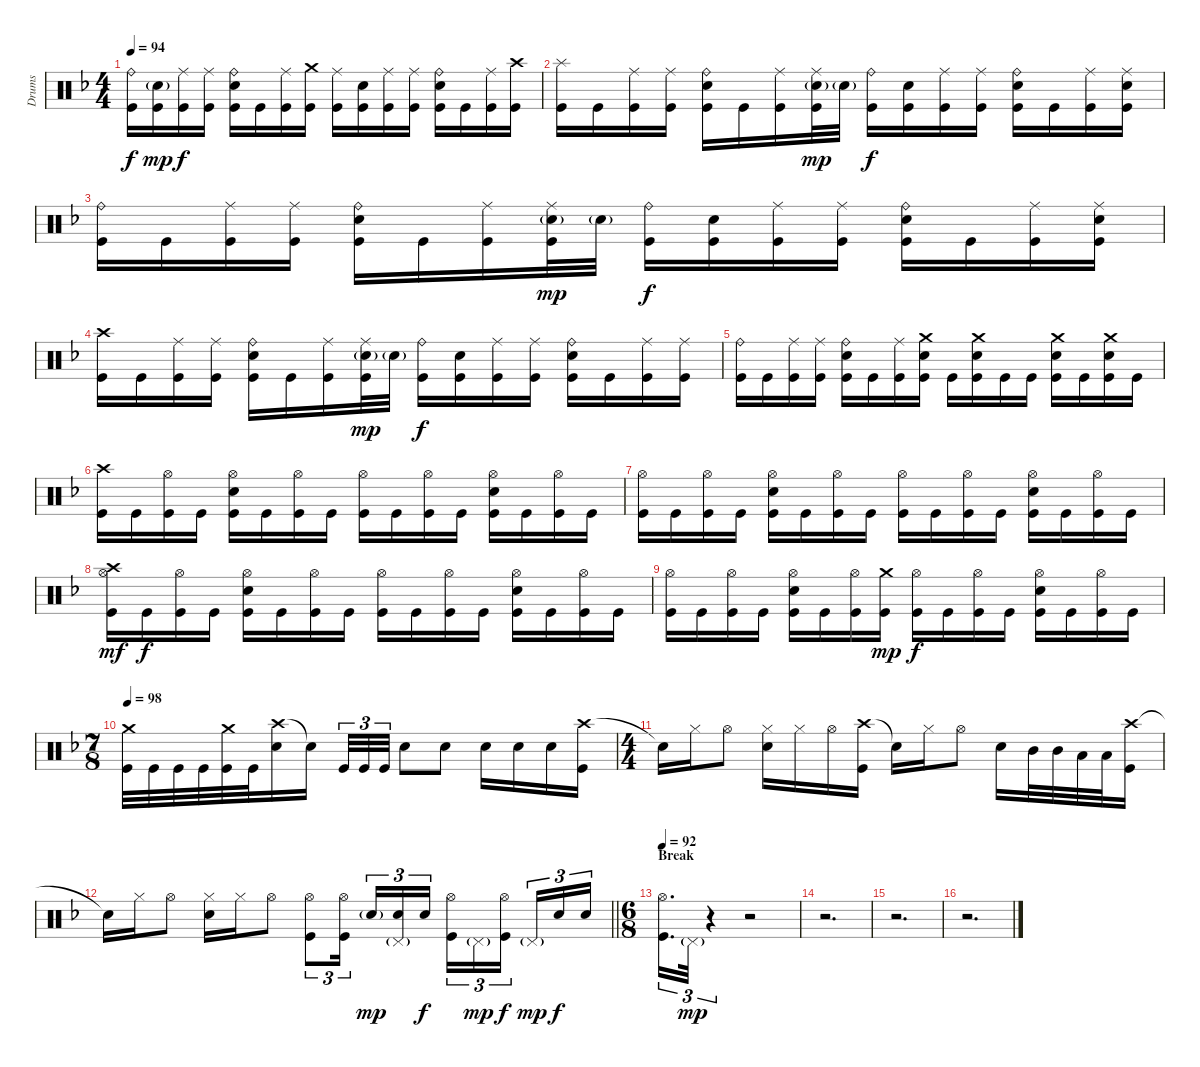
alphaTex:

\track ("Drums" "Drums") {instrument percussion bank 10}
\staff {score}
\articulation defaults
\ts (4 4)
\tempo 94
\clef neutral
\ks dminor
("Ride (bell)" "Kick (hit)").16{dy f} ("Electric Snare (hit)"{g} "Kick (hit)").16{dy mp} ("Ride (middle)" "Kick (hit)").16{dy f} ("Ride (middle)" "Kick (hit)").16 ("Ride (bell)" "Electric Snare (hit)" "Kick (hit)").16 "Kick (hit)".16 ("Ride (middle)" "Kick (hit)").16 ("Crash medium (hit)" "Kick (hit)").16 ("Ride (middle)" "Kick (hit)").16 ("Electric Snare (hit)" "Kick (hit)").16 ("Ride (middle)" "Kick (hit)").16 ("Ride (middle)" "Kick (hit)").16 ("Ride (bell)" "Electric Snare (hit)" "Kick (hit)").16 "Kick (hit)".16 ("Ride (middle)" "Kick (hit)").16 ("Crash high (hit)" "Kick (hit)").16 |
("Splash (hit)" "Kick (hit)").16 "Kick (hit)".16 ("Ride (middle)" "Kick (hit)").16 ("Ride (middle)" "Kick (hit)").16 ("Ride (bell)" "Electric Snare (hit)" "Kick (hit)").16 "Kick (hit)".16 ("Ride (middle)" "Kick (hit)").16 ("Ride (middle)" "Electric Snare (hit)"{g} "Kick (hit)").32{dy mp} "Electric Snare (hit)"{g}.32 ("Ride (bell)" "Kick (hit)").16{dy f} ("Electric Snare (hit)" "Kick (hit)").16 ("Ride (middle)" "Kick (hit)").16 ("Ride (middle)" "Kick (hit)").16 ("Ride (bell)" "Electric Snare (hit)" "Kick (hit)").16 "Kick (hit)".16 ("Ride (middle)" "Kick (hit)").16 ("Ride (middle)" "Electric Snare (hit)" "Kick (hit)").16 |
("Ride (bell)" "Kick (hit)").16 "Kick (hit)".16 ("Ride (middle)" "Kick (hit)").16 ("Ride (middle)" "Kick (hit)").16 ("Ride (bell)" "Electric Snare (hit)" "Kick (hit)").16 "Kick (hit)".16 ("Ride (middle)" "Kick (hit)").16 ("Ride (middle)" "Electric Snare (hit)"{g} "Kick (hit)").32{dy mp} "Electric Snare (hit)"{g}.32 ("Ride (bell)" "Kick (hit)").16{dy f} ("Electric Snare (hit)" "Kick (hit)").16 ("Ride (middle)" "Kick (hit)").16 ("Ride (middle)" "Kick (hit)").16 ("Ride (bell)" "Electric Snare (hit)" "Kick (hit)").16 "Kick (hit)".16 ("Ride (middle)" "Kick (hit)").16 ("Ride (middle)" "Electric Snare (hit)" "Kick (hit)").16 |
("Crash high (hit)" "Kick (hit)").16 "Kick (hit)".16 ("Ride (middle)" "Kick (hit)").16 ("Ride (middle)" "Kick (hit)").16 ("Ride (bell)" "Electric Snare (hit)" "Kick (hit)").16 "Kick (hit)".16 ("Ride (middle)" "Kick (hit)").16 ("Ride (middle)" "Electric Snare (hit)"{g} "Kick (hit)").32{dy mp} "Electric Snare (hit)"{g}.32 ("Ride (bell)" "Kick (hit)").16{dy f} ("Electric Snare (hit)" "Kick (hit)").16 ("Ride (middle)" "Kick (hit)").16 ("Ride (middle)" "Kick (hit)").16 ("Ride (bell)" "Electric Snare (hit)" "Kick (hit)").16 "Kick (hit)".16 ("Ride (middle)" "Kick (hit)").16 ("Ride (middle)" "Kick (hit)").16 |
("Ride (bell)" "Kick (hit)").16 "Kick (hit)".16 ("Ride (middle)" "Kick (hit)").16 ("Ride (middle)" "Kick (hit)").16 ("Ride (bell)" "Electric Snare (hit)" "Kick (hit)").16 "Kick (hit)".16 ("Ride (middle)" "Kick (hit)").16 ("Crash medium (hit)" "Electric Snare (hit)" "Kick (hit)").16 "Kick (hit)".16 ("Crash medium (hit)" "Electric Snare (hit)" "Kick (hit)").16 "Kick (hit)".16 "Kick (hit)".16 ("Crash medium (hit)" "Electric Snare (hit)" "Kick (hit)").16 "Kick (hit)".16 ("Crash medium (hit)" "Electric Snare (hit)" "Kick (hit)").16 "Kick (hit)".16 |
("Crash high (hit)" "Kick (hit)").16 "Kick (hit)".16 ("Hi-Hat (open)" "Kick (hit)").16 "Kick (hit)".16 ("Hi-Hat (open)" "Electric Snare (hit)" "Kick (hit)").16 "Kick (hit)".16 ("Hi-Hat (open)" "Kick (hit)").16 "Kick (hit)".16 ("Hi-Hat (open)" "Kick (hit)").16 "Kick (hit)".16 ("Hi-Hat (open)" "Kick (hit)").16 "Kick (hit)".16 ("Hi-Hat (open)" "Electric Snare (hit)" "Kick (hit)").16 "Kick (hit)".16 ("Hi-Hat (open)" "Kick (hit)").16 "Kick (hit)".16 |
("Hi-Hat (open)" "Kick (hit)").16 "Kick (hit)".16 ("Hi-Hat (open)" "Kick (hit)").16 "Kick (hit)".16 ("Hi-Hat (open)" "Electric Snare (hit)" "Kick (hit)").16 "Kick (hit)".16 ("Hi-Hat (open)" "Kick (hit)").16 "Kick (hit)".16 ("Hi-Hat (open)" "Kick (hit)").16 "Kick (hit)".16 ("Hi-Hat (open)" "Kick (hit)").16 "Kick (hit)".16 ("Hi-Hat (open)" "Electric Snare (hit)" "Kick (hit)").16 "Kick (hit)".16 ("Hi-Hat (open)" "Kick (hit)").16 "Kick (hit)".16 |
("Crash high (hit)" "Hi-Hat (open)" "Kick (hit)").16{dy mf} "Kick (hit)".16{dy f} ("Hi-Hat (open)" "Kick (hit)").16 "Kick (hit)".16 ("Hi-Hat (open)" "Electric Snare (hit)" "Kick (hit)").16 "Kick (hit)".16 ("Hi-Hat (open)" "Kick (hit)").16 "Kick (hit)".16 ("Hi-Hat (open)" "Kick (hit)").16 "Kick (hit)".16 ("Hi-Hat (open)" "Kick (hit)").16 "Kick (hit)".16 ("Hi-Hat (open)" "Electric Snare (hit)" "Kick (hit)").16 "Kick (hit)".16 ("Hi-Hat (open)" "Kick (hit)").16 "Kick (hit)".16 |
("Hi-Hat (open)" "Kick (hit)").16 "Kick (hit)".16 ("Hi-Hat (open)" "Kick (hit)").16 "Kick (hit)".16 ("Hi-Hat (open)" "Electric Snare (hit)" "Kick (hit)").16 "Kick (hit)".16 ("Hi-Hat (open)" "Kick (hit)").16 ("Crash medium (hit)" "Kick (hit)").16{dy mp} ("Hi-Hat (open)" "Kick (hit)").16{dy f} "Kick (hit)".16 ("Hi-Hat (open)" "Kick (hit)").16 "Kick (hit)".16 ("Hi-Hat (open)" "Electric Snare (hit)" "Kick (hit)").16 "Kick (hit)".16 ("Hi-Hat (open)" "Kick (hit)").16 "Kick (hit)".16 |
\ts (7 8)
\tempo 98
("Crash medium (hit)" "Kick (hit)").32 "Kick (hit)".32 "Kick (hit)".32 "Kick (hit)".32{beam merge} ("Crash medium (hit)" "Kick (hit)").32 "Kick (hit)".32 ("Crash high (hit)" "Electric Snare (hit)").16{beam merge} "Snare (hit)"{t}.16{beam splitsecondary} "Kick (hit)".32{tu (3 2)} "Kick (hit)".32{tu (3 2)} "Kick (hit)".32{tu (3 2) beam split} "Electric Snare (hit)".8{beam merge} "Electric Snare (hit)".8{beam split} "Electric Snare (hit)".16 "Electric Snare (hit)".16{beam merge} "Electric Snare (hit)".16 ("Crash high (hit)" "Kick (hit)").16 |
\ts (4 4)
"Snare (hit)"{t}.16 "Hi-Hat (closed)".16 "Hi-Hat (open)".8 ("Hi-Hat (closed)" "Electric Snare (hit)").16 "Hi-Hat (closed)".16 "Hi-Hat (open)".16 ("Crash high (hit)" "Kick (hit)").16 "Snare (hit)"{t}.16 "Hi-Hat (closed)".16 "Hi-Hat (open)".8 "Electric Snare (hit)".16 "Mid Tom (hit)".32 "Mid Tom (hit)".32 "Low Tom (hit)".32 "Low Tom (hit)".32 ("Crash high (hit)" "Kick (hit)").16 |
\barLineRight lightlight "Snare (hit)"{t}.16 "Hi-Hat (closed)".16 "Hi-Hat (open)".8
("Hi-Hat (closed)" "Electric Snare (hit)").16 "Hi-Hat (closed)".16 "Hi-Hat (open)".8 ("Hi-Hat (open)" "Kick (hit)").8{tu (3 2)} ("Hi-Hat (open)" "Kick (hit)").16{tu (3 2) beam splitsecondary} "Electric Snare (hit)"{g}.16{tu (3 2) dy mp} ("Pedal Hi-Hat (hit)"{g} "Electric Snare (hit)").16{tu (3 2)} "Electric Snare (hit)".16{tu (3 2) dy f} ("Hi-Hat (open)" "Kick (hit)").16{tu (3 2)} "Pedal Hi-Hat (hit)"{g}.16{tu (3 2) dy mp} ("Hi-Hat (open)" "Kick (hit)").16{tu (3 2) dy f beam splitsecondary} "Pedal Hi-Hat (hit)"{g}.16{tu (3 2) dy mp} "Electric Snare (hit)".16{tu (3 2) dy f} "Electric Snare (hit)".16{tu (3 2)} |
\ts (6 8)
\section ("" "Break")
\tempo 92
("Hi-Hat (open)" "Kick (hit)").16{d tu (3 2)} "Pedal Hi-Hat (hit)"{g}.32{tu (3 2) dy mp} r.4{tu (3 2)} r.2 |
r.2{d} |
r.2{d} |
r.2{d}
